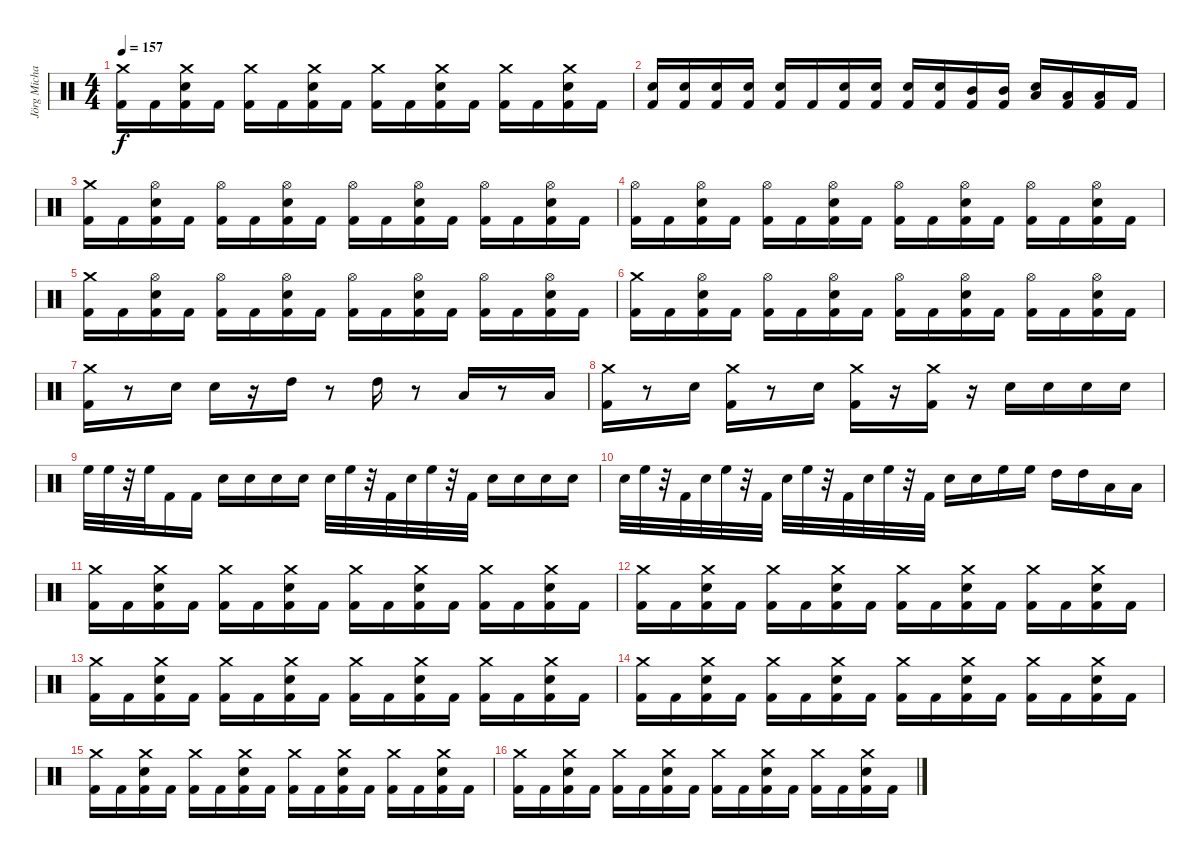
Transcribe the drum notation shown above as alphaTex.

\track ("Jörg Michael" "Jörg Micha") {instrument percussion}
\staff {score}
\articulation defaults
\ts (4 4)
\tempo 157
\clef neutral
\ks c
("Crash medium (hit)" "Kick (hit) 2").16{dy f} "Kick (hit) 2".16 ("Crash medium (hit)" "Snare (hit) 2" "Kick (hit) 2").16 "Kick (hit) 2".16 ("Crash medium (hit)" "Kick (hit) 2").16 "Kick (hit) 2".16 ("Crash medium (hit)" "Snare (hit) 2" "Kick (hit) 2").16 "Kick (hit) 2".16 ("Crash medium (hit)" "Kick (hit) 2").16 "Kick (hit) 2".16 ("Crash medium (hit)" "Snare (hit) 2" "Kick (hit) 2").16 "Kick (hit) 2".16 ("Crash medium (hit)" "Kick (hit) 2").16 "Kick (hit) 2".16 ("Crash medium (hit)" "Snare (hit) 2" "Kick (hit) 2").16 "Kick (hit) 2".16 |
("Snare (hit) 2" "Kick (hit) 2").16 ("Snare (hit) 2" "Kick (hit) 2").16 ("Snare (hit) 2" "Kick (hit) 2").16 ("Snare (hit) 2" "Kick (hit) 2").16 ("Snare (hit) 2" "Kick (hit) 2").16 "Kick (hit) 2".16 ("Snare (hit) 2" "Kick (hit) 2").16 ("Snare (hit) 2" "Kick (hit) 2").16 ("Snare (hit) 2" "Kick (hit) 2").16 ("Snare (hit) 2" "Kick (hit) 2").16 ("Mid Tom (hit)" "Kick (hit) 2").16 ("Mid Tom (hit)" "Kick (hit) 2").16 ("Low Tom (hit)" "Snare (hit) 2").16 ("Low Tom (hit)" "Kick (hit) 2").16 ("Low Tom (hit)" "Kick (hit) 2").16 "Kick (hit) 2".16 |
("Crash medium (hit)" "Kick (hit) 2").16 "Kick (hit) 2".16 ("Hi-Hat (open)" "Snare (hit) 2" "Kick (hit) 2").16 "Kick (hit) 2".16 ("Hi-Hat (open)" "Kick (hit) 2").16 "Kick (hit) 2".16 ("Hi-Hat (open)" "Snare (hit) 2" "Kick (hit) 2").16 "Kick (hit) 2".16 ("Hi-Hat (open)" "Kick (hit) 2").16 "Kick (hit) 2".16 ("Hi-Hat (open)" "Snare (hit) 2" "Kick (hit) 2").16 "Kick (hit) 2".16 ("Hi-Hat (open)" "Kick (hit) 2").16 "Kick (hit) 2".16 ("Hi-Hat (open)" "Snare (hit) 2" "Kick (hit) 2").16 "Kick (hit) 2".16 |
("Hi-Hat (open)" "Kick (hit) 2").16 "Kick (hit) 2".16 ("Hi-Hat (open)" "Snare (hit) 2" "Kick (hit) 2").16 "Kick (hit) 2".16 ("Hi-Hat (open)" "Kick (hit) 2").16 "Kick (hit) 2".16 ("Hi-Hat (open)" "Snare (hit) 2" "Kick (hit) 2").16 "Kick (hit) 2".16 ("Hi-Hat (open)" "Kick (hit) 2").16 "Kick (hit) 2".16 ("Hi-Hat (open)" "Snare (hit) 2" "Kick (hit) 2").16 "Kick (hit) 2".16 ("Hi-Hat (open)" "Kick (hit) 2").16 "Kick (hit) 2".16 ("Hi-Hat (open)" "Snare (hit) 2" "Kick (hit) 2").16 "Kick (hit) 2".16 |
("Crash medium (hit)" "Kick (hit) 2").16 "Kick (hit) 2".16 ("Hi-Hat (open)" "Snare (hit) 2" "Kick (hit) 2").16 "Kick (hit) 2".16 ("Hi-Hat (open)" "Kick (hit) 2").16 "Kick (hit) 2".16 ("Hi-Hat (open)" "Snare (hit) 2" "Kick (hit) 2").16 "Kick (hit) 2".16 ("Hi-Hat (open)" "Kick (hit) 2").16 "Kick (hit) 2".16 ("Hi-Hat (open)" "Snare (hit) 2" "Kick (hit) 2").16 "Kick (hit) 2".16 ("Hi-Hat (open)" "Kick (hit) 2").16 "Kick (hit) 2".16 ("Hi-Hat (open)" "Snare (hit) 2" "Kick (hit) 2").16 "Kick (hit) 2".16 |
("Crash medium (hit)" "Kick (hit) 2").16 "Kick (hit) 2".16 ("Hi-Hat (open)" "Snare (hit) 2" "Kick (hit) 2").16 "Kick (hit) 2".16 ("Hi-Hat (open)" "Kick (hit) 2").16 "Kick (hit) 2".16 ("Hi-Hat (open)" "Snare (hit) 2" "Kick (hit) 2").16 "Kick (hit) 2".16 ("Hi-Hat (open)" "Kick (hit) 2").16 "Kick (hit) 2".16 ("Hi-Hat (open)" "Snare (hit) 2" "Kick (hit) 2").16 "Kick (hit) 2".16 ("Hi-Hat (open)" "Kick (hit) 2").16 "Kick (hit) 2".16 ("Hi-Hat (open)" "Snare (hit) 2" "Kick (hit) 2").16 "Kick (hit) 2".16 |
("Kick (hit) 2" "Crash medium (hit)").16 r.8 "Snare (hit) 2".16 "Snare (hit) 2".16 r.16 "High Tom (hit)".16 r.8 "High Tom (hit)".16 r.8 "Low Tom (hit)".16 r.8 "Low Floor Tom (hit)".16 |
("Kick (hit) 2" "Crash medium (hit)").16 r.8 "Snare (hit) 2".16 ("Kick (hit) 2" "Crash medium (hit)").16 r.8 "Snare (hit) 2".16 ("Kick (hit) 2" "Crash medium (hit)").16 r.16 ("Kick (hit) 2" "Crash medium (hit)").16 r.16 "Snare (hit) 2".16 "Snare (hit) 2".16 "Snare (hit) 2".16 "Snare (hit) 2".16 |
"High Floor Tom (hit)".32 "High Floor Tom (hit)".32 r.32 "High Floor Tom (hit)".32 "Kick (hit) 2".16 "Kick (hit) 2".16 "Snare (hit) 2".16 "Snare (hit) 2".16 "Snare (hit) 2".16 "Snare (hit) 2".16 "Snare (hit) 2".32 "High Floor Tom (hit)".32 r.32 "Kick (hit) 2".32 "Snare (hit) 2".32 "High Floor Tom (hit)".32 r.32 "Kick (hit) 2".32 "Snare (hit) 2".16 "Snare (hit) 2".16 "Snare (hit) 2".16 "Snare (hit) 2".16 |
"Snare (hit) 2".32 "High Floor Tom (hit)".32 r.32 "Kick (hit) 2".32 "Snare (hit) 2".32 "High Floor Tom (hit)".32 r.32 "Kick (hit) 2".32 "Snare (hit) 2".32 "High Floor Tom (hit)".32 r.32 "Kick (hit) 2".32 "Snare (hit) 2".32 "High Floor Tom (hit)".32 r.32 "Kick (hit) 2".32 "Snare (hit) 2".16 "Snare (hit) 2".16 "High Floor Tom (hit)".16 "High Floor Tom (hit)".16 "High Tom (hit)".16 "High Tom (hit)".16 "Low Tom (hit)".16 "Low Tom (hit)".16 |
("Crash medium (hit)" "Kick (hit) 2").16 "Kick (hit) 2".16 ("Crash medium (hit)" "Snare (hit) 2" "Kick (hit) 2").16 "Kick (hit) 2".16 ("Crash medium (hit)" "Kick (hit) 2").16 "Kick (hit) 2".16 ("Crash medium (hit)" "Snare (hit) 2" "Kick (hit) 2").16 "Kick (hit) 2".16 ("Crash medium (hit)" "Kick (hit) 2").16 "Kick (hit) 2".16 ("Crash medium (hit)" "Snare (hit) 2" "Kick (hit) 2").16 "Kick (hit) 2".16 ("Crash medium (hit)" "Kick (hit) 2").16 "Kick (hit) 2".16 ("Crash medium (hit)" "Snare (hit) 2" "Kick (hit) 2").16 "Kick (hit) 2".16 |
("Crash medium (hit)" "Kick (hit) 2").16 "Kick (hit) 2".16 ("Crash medium (hit)" "Snare (hit) 2" "Kick (hit) 2").16 "Kick (hit) 2".16 ("Crash medium (hit)" "Kick (hit) 2").16 "Kick (hit) 2".16 ("Crash medium (hit)" "Snare (hit) 2" "Kick (hit) 2").16 "Kick (hit) 2".16 ("Crash medium (hit)" "Kick (hit) 2").16 "Kick (hit) 2".16 ("Crash medium (hit)" "Snare (hit) 2" "Kick (hit) 2").16 "Kick (hit) 2".16 ("Crash medium (hit)" "Kick (hit) 2").16 "Kick (hit) 2".16 ("Crash medium (hit)" "Snare (hit) 2" "Kick (hit) 2").16 "Kick (hit) 2".16 |
("Crash medium (hit)" "Kick (hit) 2").16 "Kick (hit) 2".16 ("Crash medium (hit)" "Snare (hit) 2" "Kick (hit) 2").16 "Kick (hit) 2".16 ("Crash medium (hit)" "Kick (hit) 2").16 "Kick (hit) 2".16 ("Crash medium (hit)" "Snare (hit) 2" "Kick (hit) 2").16 "Kick (hit) 2".16 ("Crash medium (hit)" "Kick (hit) 2").16 "Kick (hit) 2".16 ("Crash medium (hit)" "Snare (hit) 2" "Kick (hit) 2").16 "Kick (hit) 2".16 ("Crash medium (hit)" "Kick (hit) 2").16 "Kick (hit) 2".16 ("Crash medium (hit)" "Snare (hit) 2" "Kick (hit) 2").16 "Kick (hit) 2".16 |
("Crash medium (hit)" "Kick (hit) 2").16 "Kick (hit) 2".16 ("Crash medium (hit)" "Snare (hit) 2" "Kick (hit) 2").16 "Kick (hit) 2".16 ("Crash medium (hit)" "Kick (hit) 2").16 "Kick (hit) 2".16 ("Crash medium (hit)" "Snare (hit) 2" "Kick (hit) 2").16 "Kick (hit) 2".16 ("Crash medium (hit)" "Kick (hit) 2").16 "Kick (hit) 2".16 ("Crash medium (hit)" "Snare (hit) 2" "Kick (hit) 2").16 "Kick (hit) 2".16 ("Crash medium (hit)" "Kick (hit) 2").16 "Kick (hit) 2".16 ("Crash medium (hit)" "Snare (hit) 2" "Kick (hit) 2").16 "Kick (hit) 2".16 |
("Crash medium (hit)" "Kick (hit) 2").16 "Kick (hit) 2".16 ("Crash medium (hit)" "Snare (hit) 2" "Kick (hit) 2").16 "Kick (hit) 2".16 ("Crash medium (hit)" "Kick (hit) 2").16 "Kick (hit) 2".16 ("Crash medium (hit)" "Snare (hit) 2" "Kick (hit) 2").16 "Kick (hit) 2".16 ("Crash medium (hit)" "Kick (hit) 2").16 "Kick (hit) 2".16 ("Crash medium (hit)" "Snare (hit) 2" "Kick (hit) 2").16 "Kick (hit) 2".16 ("Crash medium (hit)" "Kick (hit) 2").16 "Kick (hit) 2".16 ("Crash medium (hit)" "Snare (hit) 2" "Kick (hit) 2").16 "Kick (hit) 2".16 |
("Crash medium (hit)" "Kick (hit) 2").16 "Kick (hit) 2".16 ("Crash medium (hit)" "Snare (hit) 2" "Kick (hit) 2").16 "Kick (hit) 2".16 ("Crash medium (hit)" "Kick (hit) 2").16 "Kick (hit) 2".16 ("Crash medium (hit)" "Snare (hit) 2" "Kick (hit) 2").16 "Kick (hit) 2".16 ("Crash medium (hit)" "Kick (hit) 2").16 "Kick (hit) 2".16 ("Crash medium (hit)" "Snare (hit) 2" "Kick (hit) 2").16 "Kick (hit) 2".16 ("Crash medium (hit)" "Kick (hit) 2").16 "Kick (hit) 2".16 ("Crash medium (hit)" "Snare (hit) 2" "Kick (hit) 2").16 "Kick (hit) 2".16
